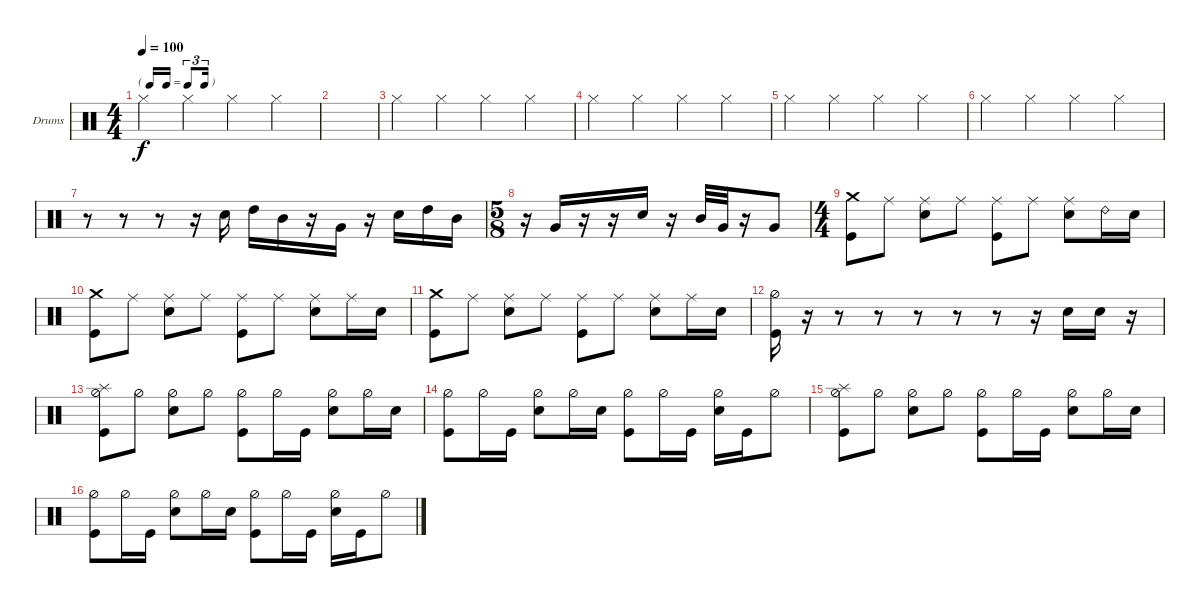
\bracketExtendMode groupsimilarinstruments
\firstSystemTrackNameOrientation horizontal
\otherSystemsTrackNameOrientation horizontal
\track ("Drumkit" "Drums") {instrument percussion}
\staff {score}
\articulation defaults
\ts (4 4)
\tf triplet16th
\tempo 100
\clef neutral
\ks c "Hi-Hat (closed)".4{dy f} "Hi-Hat (closed)".4 "Hi-Hat (closed)".4 "Hi-Hat (closed)".4
|
\scale
0.474178 |
\scale
0.262911 "Hi-Hat (closed)".4 "Hi-Hat (closed)".4 "Hi-Hat (closed)".4 "Hi-Hat (closed)".4 |
\scale
0.262911 "Hi-Hat (closed)".4 "Hi-Hat (closed)".4 "Hi-Hat (closed)".4 "Hi-Hat (closed)".4 |
\scale
0.333333 "Hi-Hat (closed)".4 "Hi-Hat (closed)".4 "Hi-Hat (closed)".4 "Hi-Hat (closed)".4 |
\scale
0.333333 "Hi-Hat (closed)".4 "Hi-Hat (closed)".4 "Hi-Hat (closed)".4 "Hi-Hat (closed)".4 |
\scale
0.333333 r.8 r.8 r.8 r.16 "Snare (hit) 2".16 "High Tom (hit)".16 "Mid Tom (hit)".16 r.16 "Very Low Tom (hit)".16 r.16 "Snare (hit) 2".16 "High Tom (hit)".16 "Mid Tom (hit)".16 |
\ts (5 8)
r.16 "Very Low Tom (hit)".16 r.16 r.16 "Snare (hit) 2".16 r.16 "Mid Tom (hit)".32 "Very Low Tom (hit)".32 r.16 "Very Low Tom (hit)".8 |
\ts (4 4)
("Kick (hit)" "Crash medium (hit)").8 "Ride (middle)".8 ("Snare (hit) 2" "Ride (middle)").8 "Ride (middle)".8 ("Kick (hit)" "Ride (middle)").8 "Ride (middle)".8 ("Ride (middle)" "Snare (hit) 2").8 "Ride (bell) 2".16 "Snare (hit) 2".16 |
("Kick (hit)" "Crash medium (hit)").8 "Ride (middle)".8 ("Snare (hit) 2" "Ride (middle)").8 "Ride (middle)".8 ("Kick (hit)" "Ride (middle)").8 "Ride (middle)".8 ("Ride (middle)" "Snare (hit) 2").8 "Ride (middle)".16 "Snare (hit) 2".16 |
("Kick (hit)" "Crash medium (hit)").8 "Ride (middle)".8 ("Snare (hit) 2" "Ride (middle)").8 "Ride (middle)".8 ("Kick (hit)" "Ride (middle)").8 "Ride (middle)".8 ("Ride (middle)" "Snare (hit) 2").8 "Ride (middle)".16 "Snare (hit) 2".16 |
("Kick (hit)" "Hi-Hat (half)").16 r.16 r.8 r.8 r.8 r.8 r.8 r.16 "Snare (hit) 2".16 "Snare (hit) 2".16 r.16 |
("Kick (hit)" "Hi-Hat (half)" "Splash (hit)").8 "Hi-Hat (half)".8 ("Snare (hit) 2" "Hi-Hat (half)").8 "Hi-Hat (half)".8 ("Kick (hit)" "Hi-Hat (half)").8 "Hi-Hat (half)".16 "Kick (hit)".16 ("Snare (hit) 2" "Hi-Hat (half)").8 "Hi-Hat (half)".16 "Snare (hit) 2".16 |
("Hi-Hat (half)" "Kick (hit)").8 "Hi-Hat (half)".16 "Kick (hit)".16 ("Hi-Hat (half)" "Snare (hit) 2").8 "Hi-Hat (half)".16 "Snare (hit) 2".16 ("Hi-Hat (half)" "Kick (hit)").8 "Hi-Hat (half)".16 "Kick (hit)".16 ("Hi-Hat (half)" "Snare (hit) 2").16 "Kick (hit)".16 "Hi-Hat (half)".8 |
("Kick (hit)" "Hi-Hat (half)" "Splash (hit)").8 "Hi-Hat (half)".8 ("Snare (hit) 2" "Hi-Hat (half)").8 "Hi-Hat (half)".8 ("Kick (hit)" "Hi-Hat (half)").8 "Hi-Hat (half)".16 "Kick (hit)".16 ("Snare (hit) 2" "Hi-Hat (half)").8 "Hi-Hat (half)".16 "Snare (hit) 2".16 |
("Hi-Hat (half)" "Kick (hit)").8 "Hi-Hat (half)".16 "Kick (hit)".16 ("Hi-Hat (half)" "Snare (hit) 2").8 "Hi-Hat (half)".16 "Snare (hit) 2".16 ("Hi-Hat (half)" "Kick (hit)").8 "Hi-Hat (half)".16 "Kick (hit)".16 ("Hi-Hat (half)" "Snare (hit) 2").16 "Kick (hit)".16 "Hi-Hat (half)".8
